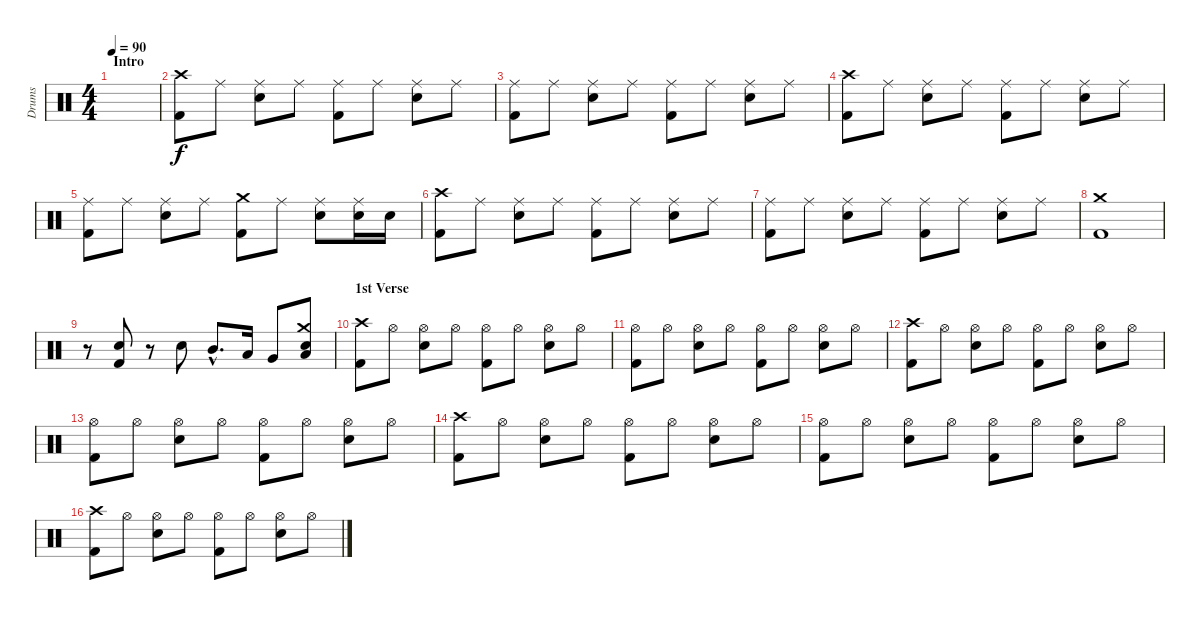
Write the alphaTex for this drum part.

\track ("Drums" "Drums") {instrument percussion}
\staff {score}
\articulation defaults
\ts (4 4)
\section ("" "Intro")
\tempo 90
\clef neutral
\ks c
|
("Crash high (hit)" "Kick (hit) 2").8 "Ride (middle)".8 ("Ride (middle)" "Snare (hit) 2").8 "Ride (middle)".8 ("Ride (middle)" "Kick (hit) 2").8 "Ride (middle)".8 ("Ride (middle)" "Snare (hit) 2").8 "Ride (middle)".8 |
("Ride (middle)" "Kick (hit) 2").8 "Ride (middle)".8 ("Ride (middle)" "Snare (hit) 2").8 "Ride (middle)".8 ("Ride (middle)" "Kick (hit) 2").8 "Ride (middle)".8 ("Ride (middle)" "Snare (hit) 2").8 "Ride (middle)".8 |
("Crash high (hit)" "Kick (hit) 2").8 "Ride (middle)".8 ("Ride (middle)" "Snare (hit) 2").8 "Ride (middle)".8 ("Ride (middle)" "Kick (hit) 2").8 "Ride (middle)".8 ("Ride (middle)" "Snare (hit) 2").8 "Ride (middle)".8 |
("Ride (middle)" "Kick (hit) 2").8 "Ride (middle)".8 ("Ride (middle)" "Snare (hit) 2").8 "Ride (middle)".8 ("Crash medium (hit)" "Kick (hit) 2").8 "Ride (middle)".8 ("Ride (middle)" "Snare (hit) 2").8 ("Ride (middle)" "Snare (hit) 2").16 "Snare (hit) 2".16 |
("Crash high (hit)" "Kick (hit) 2").8 "Ride (middle)".8 ("Ride (middle)" "Snare (hit) 2").8 "Ride (middle)".8 ("Ride (middle)" "Kick (hit) 2").8 "Ride (middle)".8 ("Ride (middle)" "Snare (hit) 2").8 "Ride (middle)".8 |
("Ride (middle)" "Kick (hit) 2").8 "Ride (middle)".8 ("Ride (middle)" "Snare (hit) 2").8 "Ride (middle)".8 ("Ride (middle)" "Kick (hit) 2").8 "Ride (middle)".8 ("Ride (middle)" "Snare (hit) 2").8 "Ride (middle)".8 |
("Crash medium (hit)" "Kick (hit) 2").1 |
r.8 ("Snare (hit) 2" "Kick (hit) 2").8 r.8 "Snare (hit) 2".8 "Mid Tom (hit)"{hac}.8{d} "Low Tom (hit)".16 "Very Low Tom (hit)".8 ("Crash medium (hit)" "Snare (hit) 2" "Low Floor Tom (hit)").8 |
\section ("" "1st Verse")
("Crash high (hit)" "Kick (hit) 2").8 "Hi-Hat (open)".8 ("Hi-Hat (open)" "Snare (hit) 2").8 "Hi-Hat (open)".8 ("Hi-Hat (open)" "Kick (hit) 2").8 "Hi-Hat (open)".8 ("Hi-Hat (open)" "Snare (hit) 2").8 "Hi-Hat (open)".8 |
("Hi-Hat (open)" "Kick (hit) 2").8 "Hi-Hat (open)".8 ("Hi-Hat (open)" "Snare (hit) 2").8 "Hi-Hat (open)".8 ("Hi-Hat (open)" "Kick (hit) 2").8 "Hi-Hat (open)".8 ("Hi-Hat (open)" "Snare (hit) 2").8 "Hi-Hat (open)".8 |
("Crash high (hit)" "Kick (hit) 2").8 "Hi-Hat (open)".8 ("Hi-Hat (open)" "Snare (hit) 2").8 "Hi-Hat (open)".8 ("Hi-Hat (open)" "Kick (hit) 2").8 "Hi-Hat (open)".8 ("Hi-Hat (open)" "Snare (hit) 2").8 "Hi-Hat (open)".8 |
("Hi-Hat (open)" "Kick (hit) 2").8 "Hi-Hat (open)".8 ("Hi-Hat (open)" "Snare (hit) 2").8 "Hi-Hat (open)".8 ("Hi-Hat (open)" "Kick (hit) 2").8 "Hi-Hat (open)".8 ("Hi-Hat (open)" "Snare (hit) 2").8 "Hi-Hat (open)".8 |
("Crash high (hit)" "Kick (hit) 2").8 "Hi-Hat (open)".8 ("Hi-Hat (open)" "Snare (hit) 2").8 "Hi-Hat (open)".8 ("Hi-Hat (open)" "Kick (hit) 2").8 "Hi-Hat (open)".8 ("Hi-Hat (open)" "Snare (hit) 2").8 "Hi-Hat (open)".8 |
("Hi-Hat (open)" "Kick (hit) 2").8 "Hi-Hat (open)".8 ("Hi-Hat (open)" "Snare (hit) 2").8 "Hi-Hat (open)".8 ("Hi-Hat (open)" "Kick (hit) 2").8 "Hi-Hat (open)".8 ("Hi-Hat (open)" "Snare (hit) 2").8 "Hi-Hat (open)".8 |
("Crash high (hit)" "Kick (hit) 2").8 "Hi-Hat (open)".8 ("Hi-Hat (open)" "Snare (hit) 2").8 "Hi-Hat (open)".8 ("Hi-Hat (open)" "Kick (hit) 2").8 "Hi-Hat (open)".8 ("Hi-Hat (open)" "Snare (hit) 2").8 "Hi-Hat (open)".8
